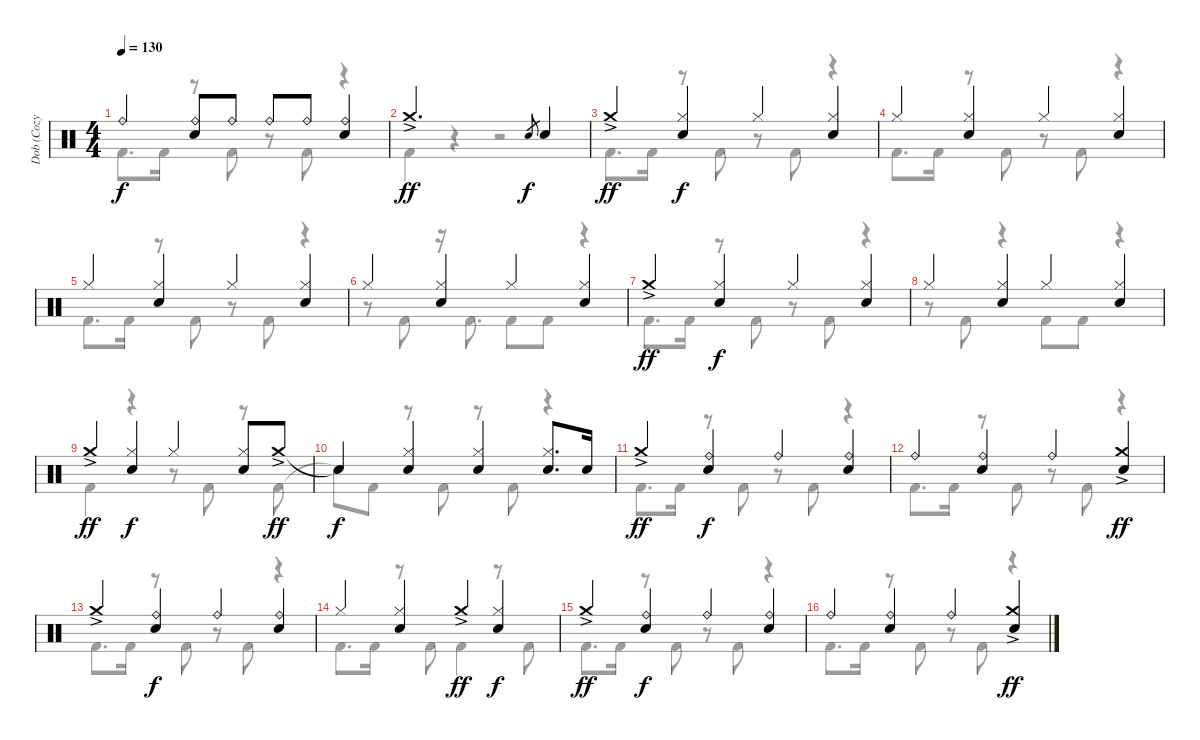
\track ("Dob (Cozy Powell)" "Dob (Cozy ") {instrument percussion}
\staff {score}
\articulation defaults
\voice
\ts (4 4)
\tempo 130
\clef neutral
\ks c "Ride (bell)".4{dy f}
("Ride (bell)" "Electric Snare (hit)").8 "Ride (bell)".8 "Ride (bell)".8 "Ride (bell)".8 ("Ride (bell)" "Electric Snare (hit)").4 |
"Crash medium (hit)"{ac}.2{d dy ff} "Electric Snare (hit)".8{gr dy f} "Electric Snare (hit)".4 |
"Crash medium (hit)"{ac}.4{dy ff} ("Hi-Hat (closed)" "Electric Snare (hit)").4{dy f} "Hi-Hat (closed)".4 ("Hi-Hat (closed)" "Electric Snare (hit)").4 |
"Hi-Hat (closed)".4 ("Hi-Hat (closed)" "Electric Snare (hit)").4 "Hi-Hat (closed)".4 ("Hi-Hat (closed)" "Electric Snare (hit)").4 |
"Hi-Hat (closed)".4 ("Hi-Hat (closed)" "Electric Snare (hit)").4 "Hi-Hat (closed)".4 ("Hi-Hat (closed)" "Electric Snare (hit)").4 |
"Hi-Hat (closed)".4 ("Hi-Hat (closed)" "Electric Snare (hit)").4 "Hi-Hat (closed)".4 ("Hi-Hat (closed)" "Electric Snare (hit)").4 |
"Crash medium (hit)"{ac}.4{dy ff} ("Hi-Hat (closed)" "Electric Snare (hit)").4{dy f} "Hi-Hat (closed)".4 ("Hi-Hat (closed)" "Electric Snare (hit)").4 |
"Hi-Hat (closed)".4 ("Hi-Hat (closed)" "Electric Snare (hit)").4 "Hi-Hat (closed)".4 ("Hi-Hat (closed)" "Electric Snare (hit)").4 |
"Crash medium (hit)"{ac}.4{dy ff} ("Hi-Hat (closed)" "Electric Snare (hit)").4{dy f} "Hi-Hat (closed)".4 ("Hi-Hat (closed)" "Electric Snare (hit)").8 "Crash medium (hit)"{ac}.8{dy ff} |
"Snare (hit)"{t}.4{dy f} ("Hi-Hat (closed)" "Electric Snare (hit)").4 ("Hi-Hat (closed)" "Electric Snare (hit)").4 ("Hi-Hat (closed)" "Electric Snare (hit)").8{d} "Electric Snare (hit)".16 |
"Crash medium (hit)"{ac}.4{dy ff} ("Ride (bell)" "Electric Snare (hit)").4{dy f} "Ride (bell)".4 ("Ride (bell)" "Electric Snare (hit)").4 |
"Ride (bell)".4 ("Ride (bell)" "Electric Snare (hit)").4 "Ride (bell)".4 ("Crash medium (hit)"{ac} "Electric Snare (hit)").4{dy ff} |
"Crash medium (hit)"{ac}.4 ("Ride (bell)" "Electric Snare (hit)").4{dy f} "Ride (bell)".4 ("Ride (bell)" "Electric Snare (hit)").4 |
"Hi-Hat (closed)".4 ("Hi-Hat (closed)" "Electric Snare (hit)").4 "Crash medium (hit)"{ac}.4{dy ff} ("Hi-Hat (closed)" "Electric Snare (hit)").4{dy f} |
"Crash medium (hit)"{ac}.4{dy ff} ("Ride (bell)" "Electric Snare (hit)").4{dy f} "Ride (bell)".4 ("Ride (bell)" "Electric Snare (hit)").4 |
"Ride (bell)".4 ("Ride (bell)" "Electric Snare (hit)").4 "Ride (bell)".4 ("Crash medium (hit)"{ac} "Electric Snare (hit)").4{dy ff}
\voice
\clef neutral
\ottava regular
\simile none
\ks c "Kick (hit) 2".8{d dy f} "Kick (hit) 2".16
r.8 "Kick (hit) 2".8 r.8 "Kick (hit) 2".8 r.4 |
"Kick (hit) 2".4 r.4 r.2 |
"Kick (hit) 2".8{d} "Kick (hit) 2".16 r.8 "Kick (hit) 2".8 r.8 "Kick (hit) 2".8 r.4 |
"Kick (hit) 2".8{d} "Kick (hit) 2".16 r.8 "Kick (hit) 2".8 r.8 "Kick (hit) 2".8 r.4 |
"Kick (hit) 2".8{d} "Kick (hit) 2".16 r.8 "Kick (hit) 2".8 r.8 "Kick (hit) 2".8 r.4 |
r.8 "Kick (hit) 2".8 r.16 "Kick (hit) 2".8{d} "Kick (hit) 2".8 "Kick (hit) 2".8 r.4 |
"Kick (hit) 2".8{d} "Kick (hit) 2".16 r.8 "Kick (hit) 2".8 r.8 "Kick (hit) 2".8 r.4 |
r.8 "Kick (hit) 2".8 r.4 "Kick (hit) 2".8 "Kick (hit) 2".8 r.4 |
"Kick (hit) 2".4 r.4 r.8 "Kick (hit) 2".8 r.8 "Kick (hit) 2".8 |
"Snare (hit)"{t}.8 "Kick (hit) 2".8 r.8 "Kick (hit) 2".8 r.8 "Kick (hit) 2".8 r.4 |
"Kick (hit) 2".8{d} "Kick (hit) 2".16 r.8 "Kick (hit) 2".8 r.8 "Kick (hit) 2".8 r.4 |
"Kick (hit) 2".8{d} "Kick (hit) 2".16 r.8 "Kick (hit) 2".8 r.8 "Kick (hit) 2".8 r.4 |
"Kick (hit) 2".8{d} "Kick (hit) 2".16 r.8 "Kick (hit) 2".8 r.8 "Kick (hit) 2".8 r.4 |
"Kick (hit) 2".8{d} "Kick (hit) 2".16 r.8 "Kick (hit) 2".8 "Kick (hit) 2".4 r.8 "Kick (hit) 2".8 |
"Kick (hit) 2".8{d} "Kick (hit) 2".16 r.8 "Kick (hit) 2".8 r.8 "Kick (hit) 2".8 r.4 |
"Kick (hit) 2".8{d} "Kick (hit) 2".16 r.8 "Kick (hit) 2".8 r.8 "Kick (hit) 2".8 r.4
